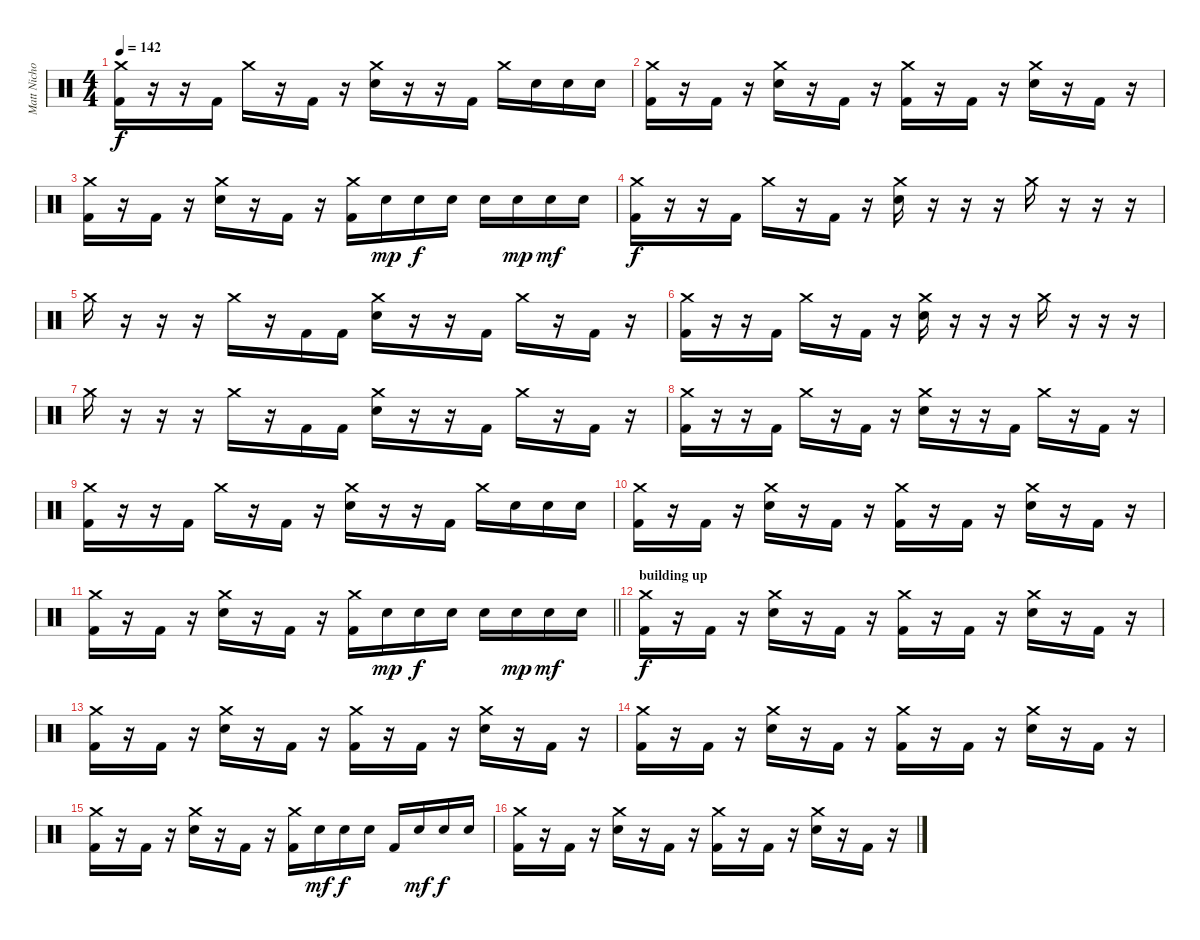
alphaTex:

\track ("Matt Nicholls" "Matt Nicho") {instrument percussion}
\staff {score}
\articulation defaults
\ts (4 4)
\tempo 142
\clef neutral
\ks c
("Crash medium (hit)" "Kick (hit) 2").16{dy f} r.16 r.16 "Kick (hit) 2".16 "Crash medium (hit)".16 r.16 "Kick (hit) 2".16 r.16 ("Crash medium (hit)" "Electric Snare (hit)").16 r.16 r.16 "Kick (hit) 2".16 "Crash medium (hit)".16 "Electric Snare (hit)".16 "Electric Snare (hit)".16 "Electric Snare (hit)".16 |
("Crash medium (hit)" "Kick (hit) 2").16 r.16 "Kick (hit) 2".16 r.16 ("Crash medium (hit)" "Electric Snare (hit)").16 r.16 "Kick (hit) 2".16 r.16 ("Crash medium (hit)" "Kick (hit) 2").16 r.16 "Kick (hit) 2".16 r.16 ("Crash medium (hit)" "Electric Snare (hit)").16 r.16 "Kick (hit) 2".16 r.16 |
("Crash medium (hit)" "Kick (hit) 2").16 r.16 "Kick (hit) 2".16 r.16 ("Crash medium (hit)" "Electric Snare (hit)").16 r.16 "Kick (hit) 2".16 r.16 ("Crash medium (hit)" "Kick (hit) 2").16 "Electric Snare (hit)".16{dy mp} "Electric Snare (hit)".16{dy f} "Electric Snare (hit)".16 "Electric Snare (hit)".16 "Electric Snare (hit)".16{dy mp} "Electric Snare (hit)".16{dy mf} "Electric Snare (hit)".16 |
("Crash medium (hit)" "Kick (hit) 2").16{dy f} r.16 r.16 "Kick (hit) 2".16 "Crash medium (hit)".16 r.16 "Kick (hit) 2".16 r.16 ("Crash medium (hit)" "Electric Snare (hit)").16 r.16 r.16 r.16 "Crash medium (hit)".16 r.16 r.16 r.16 |
"Crash medium (hit)".16 r.16 r.16 r.16 "Crash medium (hit)".16 r.16 "Kick (hit) 2".16 "Kick (hit) 2".16 ("Crash medium (hit)" "Electric Snare (hit)").16 r.16 r.16 "Kick (hit) 2".16 "Crash medium (hit)".16 r.16 "Kick (hit) 2".16 r.16 |
("Crash medium (hit)" "Kick (hit) 2").16 r.16 r.16 "Kick (hit) 2".16 "Crash medium (hit)".16 r.16 "Kick (hit) 2".16 r.16 ("Crash medium (hit)" "Electric Snare (hit)").16 r.16 r.16 r.16 "Crash medium (hit)".16 r.16 r.16 r.16 |
"Crash medium (hit)".16 r.16 r.16 r.16 "Crash medium (hit)".16 r.16 "Kick (hit) 2".16 "Kick (hit) 2".16 ("Crash medium (hit)" "Electric Snare (hit)").16 r.16 r.16 "Kick (hit) 2".16 "Crash medium (hit)".16 r.16 "Kick (hit) 2".16 r.16 |
("Crash medium (hit)" "Kick (hit) 2").16 r.16 r.16 "Kick (hit) 2".16 "Crash medium (hit)".16 r.16 "Kick (hit) 2".16 r.16 ("Crash medium (hit)" "Electric Snare (hit)").16 r.16 r.16 "Kick (hit) 2".16 "Crash medium (hit)".16 r.16 "Kick (hit) 2".16 r.16 |
("Crash medium (hit)" "Kick (hit) 2").16 r.16 r.16 "Kick (hit) 2".16 "Crash medium (hit)".16 r.16 "Kick (hit) 2".16 r.16 ("Crash medium (hit)" "Electric Snare (hit)").16 r.16 r.16 "Kick (hit) 2".16 "Crash medium (hit)".16 "Electric Snare (hit)".16 "Electric Snare (hit)".16 "Electric Snare (hit)".16 |
("Crash medium (hit)" "Kick (hit) 2").16 r.16 "Kick (hit) 2".16 r.16 ("Crash medium (hit)" "Electric Snare (hit)").16 r.16 "Kick (hit) 2".16 r.16 ("Crash medium (hit)" "Kick (hit) 2").16 r.16 "Kick (hit) 2".16 r.16 ("Crash medium (hit)" "Electric Snare (hit)").16 r.16 "Kick (hit) 2".16 r.16 |
\barLineRight lightlight
("Crash medium (hit)" "Kick (hit) 2").16 r.16 "Kick (hit) 2".16 r.16 ("Crash medium (hit)" "Electric Snare (hit)").16 r.16 "Kick (hit) 2".16 r.16 ("Crash medium (hit)" "Kick (hit) 2").16 "Electric Snare (hit)".16{dy mp} "Electric Snare (hit)".16{dy f} "Electric Snare (hit)".16 "Electric Snare (hit)".16 "Electric Snare (hit)".16{dy mp} "Electric Snare (hit)".16{dy mf} "Electric Snare (hit)".16 |
\section ("" "building up")
("Crash medium (hit)" "Kick (hit) 2").16{dy f} r.16 "Kick (hit) 2".16 r.16 ("Crash medium (hit)" "Electric Snare (hit)").16 r.16 "Kick (hit) 2".16 r.16 ("Crash medium (hit)" "Kick (hit) 2").16 r.16 "Kick (hit) 2".16 r.16 ("Crash medium (hit)" "Electric Snare (hit)").16 r.16 "Kick (hit) 2".16 r.16 |
("Crash medium (hit)" "Kick (hit) 2").16 r.16 "Kick (hit) 2".16 r.16 ("Crash medium (hit)" "Electric Snare (hit)").16 r.16 "Kick (hit) 2".16 r.16 ("Crash medium (hit)" "Kick (hit) 2").16 r.16 "Kick (hit) 2".16 r.16 ("Crash medium (hit)" "Electric Snare (hit)").16 r.16 "Kick (hit) 2".16 r.16 |
("Crash medium (hit)" "Kick (hit) 2").16 r.16 "Kick (hit) 2".16 r.16 ("Crash medium (hit)" "Electric Snare (hit)").16 r.16 "Kick (hit) 2".16 r.16 ("Crash medium (hit)" "Kick (hit) 2").16 r.16 "Kick (hit) 2".16 r.16 ("Crash medium (hit)" "Electric Snare (hit)").16 r.16 "Kick (hit) 2".16 r.16 |
("Crash medium (hit)" "Kick (hit) 2").16 r.16 "Kick (hit) 2".16 r.16 ("Crash medium (hit)" "Electric Snare (hit)").16 r.16 "Kick (hit) 2".16 r.16 ("Crash medium (hit)" "Kick (hit) 2").16 "Electric Snare (hit)".16{dy mf} "Electric Snare (hit)".16{dy f} "Electric Snare (hit)".16 "Kick (hit) 2".16 "Electric Snare (hit)".16{dy mf} "Electric Snare (hit)".16{dy f} "Electric Snare (hit)".16 |
("Crash medium (hit)" "Kick (hit) 2").16 r.16 "Kick (hit) 2".16 r.16 ("Crash medium (hit)" "Electric Snare (hit)").16 r.16 "Kick (hit) 2".16 r.16 ("Crash medium (hit)" "Kick (hit) 2").16 r.16 "Kick (hit) 2".16 r.16 ("Crash medium (hit)" "Electric Snare (hit)").16 r.16 "Kick (hit) 2".16 r.16
